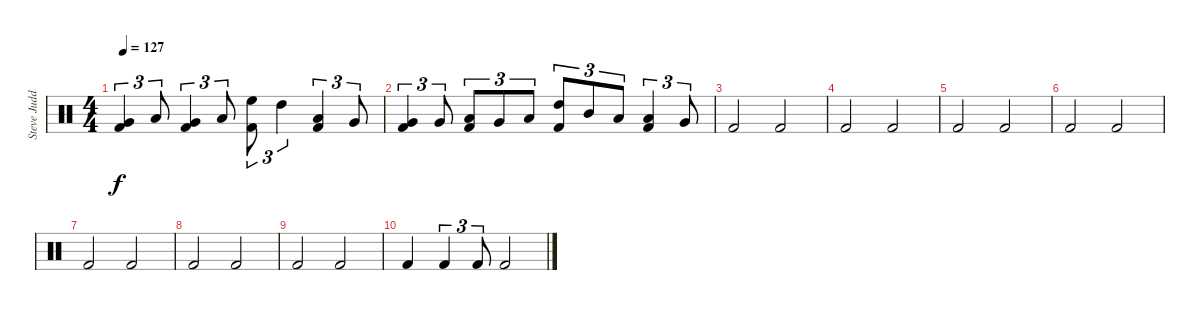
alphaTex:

\track ("Steve Judd - Drums" "Steve Judd") {mute instrument percussion}
\staff {score}
\articulation defaults
\ts (4 4)
\tempo 127
\clef neutral
\ks c
("Very Low Tom (hit)" "Kick (hit) 2").4{tu (3 2) dy f} "Low Floor Tom (hit)".8{tu (3 2)} ("Very Low Tom (hit)" "Kick (hit) 2").4{tu (3 2)} "Low Floor Tom (hit)".8{tu (3 2)} ("High Floor Tom (hit)" "Kick (hit) 2").8{tu (3 2)} "High Tom (hit)".4{tu (3 2)} ("Low Floor Tom (hit)" "Kick (hit) 2").4{tu (3 2)} "Very Low Tom (hit)".8{tu (3 2)} |
("Very Low Tom (hit)" "Kick (hit) 2").4{tu (3 2)} "Very Low Tom (hit)".8{tu (3 2)} ("Low Floor Tom (hit)" "Kick (hit) 2").8{tu (3 2)} "Very Low Tom (hit)".8{tu (3 2)} "Low Tom (hit)".8{tu (3 2)} ("High Tom (hit)" "Kick (hit) 2").8{tu (3 2)} "Mid Tom (hit)".8{tu (3 2)} "Low Tom (hit)".8{tu (3 2)} ("Low Floor Tom (hit)" "Kick (hit) 2").4{tu (3 2)} "Very Low Tom (hit)".8{tu (3 2)} |
"Kick (hit) 2".2 "Kick (hit) 2".2 |
"Kick (hit) 2".2 "Kick (hit) 2".2 |
"Kick (hit) 2".2 "Kick (hit) 2".2 |
"Kick (hit) 2".2 "Kick (hit) 2".2 |
"Kick (hit) 2".2 "Kick (hit) 2".2 |
"Kick (hit) 2".2 "Kick (hit) 2".2 |
"Kick (hit) 2".2 "Kick (hit) 2".2 |
"Kick (hit) 2".4 "Kick (hit) 2".4{tu (3 2)} "Kick (hit) 2".8{tu (3 2)} "Kick (hit) 2".2
